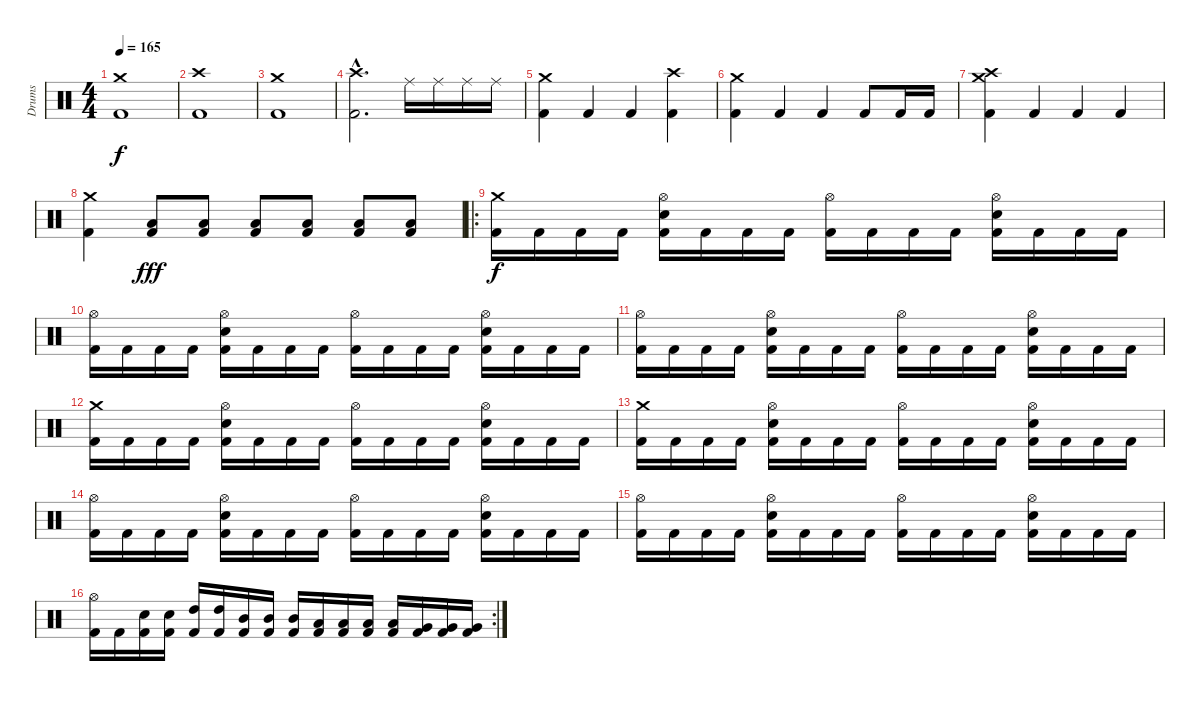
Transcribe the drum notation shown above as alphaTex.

\track ("Drums" "Drums") {instrument percussion}
\staff {score}
\articulation defaults
\ts (4 4)
\tempo 165
\clef neutral
\ks c
("Kick (hit) 2" "Crash medium (hit)").1{dy f} |
("Kick (hit) 2" "Crash high (hit)").1 |
("Kick (hit) 2" "Crash medium (hit)").1 |
("Kick (hit) 2"{hac} "Crash high (hit)"{hac}).2{d} "Ride (middle)".16 "Ride (middle)".16 "Ride (middle)".16 "Ride (middle)".16 |
("Kick (hit) 2" "Crash medium (hit)").4 "Kick (hit) 2".4 "Kick (hit) 2".4 ("Kick (hit) 2" "Crash high (hit)").4 |
("Kick (hit) 2" "Crash medium (hit)").4 "Kick (hit) 2".4 "Kick (hit) 2".4 "Kick (hit) 2".8 "Kick (hit) 2".16 "Kick (hit) 2".16 |
("Kick (hit) 2" "Crash high (hit)" "Crash medium (hit)").4 "Kick (hit) 2".4 "Kick (hit) 2".4 "Kick (hit) 2".4 |
("Kick (hit) 2" "Crash medium (hit)").4 ("Kick (hit) 2" "Low Tom (hit)").8{dy fff} ("Kick (hit) 2" "Low Tom (hit)").8 ("Kick (hit) 2" "Low Tom (hit)").8 ("Kick (hit) 2" "Low Tom (hit)").8 ("Kick (hit) 2" "Low Tom (hit)").8 ("Kick (hit) 2" "Low Tom (hit)").8 |
\ro
("Kick (hit) 2" "Crash medium (hit)").16{dy f} "Kick (hit) 2".16 "Kick (hit) 2".16 "Kick (hit) 2".16 ("Kick (hit) 2" "Electric Snare (hit)" "Hi-Hat (open)").16 "Kick (hit) 2".16 "Kick (hit) 2".16 "Kick (hit) 2".16 ("Kick (hit) 2" "Hi-Hat (open)").16 "Kick (hit) 2".16 "Kick (hit) 2".16 "Kick (hit) 2".16 ("Kick (hit) 2" "Electric Snare (hit)" "Hi-Hat (open)").16 "Kick (hit) 2".16 "Kick (hit) 2".16 "Kick (hit) 2".16 |
("Kick (hit) 2" "Hi-Hat (open)").16 "Kick (hit) 2".16 "Kick (hit) 2".16 "Kick (hit) 2".16 ("Kick (hit) 2" "Electric Snare (hit)" "Hi-Hat (open)").16 "Kick (hit) 2".16 "Kick (hit) 2".16 "Kick (hit) 2".16 ("Kick (hit) 2" "Hi-Hat (open)").16 "Kick (hit) 2".16 "Kick (hit) 2".16 "Kick (hit) 2".16 ("Kick (hit) 2" "Electric Snare (hit)" "Hi-Hat (open)").16 "Kick (hit) 2".16 "Kick (hit) 2".16 "Kick (hit) 2".16 |
("Kick (hit) 2" "Hi-Hat (open)").16 "Kick (hit) 2".16 "Kick (hit) 2".16 "Kick (hit) 2".16 ("Kick (hit) 2" "Electric Snare (hit)" "Hi-Hat (open)").16 "Kick (hit) 2".16 "Kick (hit) 2".16 "Kick (hit) 2".16 ("Kick (hit) 2" "Hi-Hat (open)").16 "Kick (hit) 2".16 "Kick (hit) 2".16 "Kick (hit) 2".16 ("Kick (hit) 2" "Electric Snare (hit)" "Hi-Hat (open)").16 "Kick (hit) 2".16 "Kick (hit) 2".16 "Kick (hit) 2".16 |
("Kick (hit) 2" "Crash medium (hit)").16 "Kick (hit) 2".16 "Kick (hit) 2".16 "Kick (hit) 2".16 ("Kick (hit) 2" "Electric Snare (hit)" "Hi-Hat (open)").16 "Kick (hit) 2".16 "Kick (hit) 2".16 "Kick (hit) 2".16 ("Kick (hit) 2" "Hi-Hat (open)").16 "Kick (hit) 2".16 "Kick (hit) 2".16 "Kick (hit) 2".16 ("Kick (hit) 2" "Electric Snare (hit)" "Hi-Hat (open)").16 "Kick (hit) 2".16 "Kick (hit) 2".16 "Kick (hit) 2".16 |
("Kick (hit) 2" "Crash medium (hit)").16 "Kick (hit) 2".16 "Kick (hit) 2".16 "Kick (hit) 2".16 ("Kick (hit) 2" "Electric Snare (hit)" "Hi-Hat (open)").16 "Kick (hit) 2".16 "Kick (hit) 2".16 "Kick (hit) 2".16 ("Kick (hit) 2" "Hi-Hat (open)").16 "Kick (hit) 2".16 "Kick (hit) 2".16 "Kick (hit) 2".16 ("Kick (hit) 2" "Electric Snare (hit)" "Hi-Hat (open)").16 "Kick (hit) 2".16 "Kick (hit) 2".16 "Kick (hit) 2".16 |
("Kick (hit) 2" "Hi-Hat (open)").16 "Kick (hit) 2".16 "Kick (hit) 2".16 "Kick (hit) 2".16 ("Kick (hit) 2" "Electric Snare (hit)" "Hi-Hat (open)").16 "Kick (hit) 2".16 "Kick (hit) 2".16 "Kick (hit) 2".16 ("Kick (hit) 2" "Hi-Hat (open)").16 "Kick (hit) 2".16 "Kick (hit) 2".16 "Kick (hit) 2".16 ("Kick (hit) 2" "Electric Snare (hit)" "Hi-Hat (open)").16 "Kick (hit) 2".16 "Kick (hit) 2".16 "Kick (hit) 2".16 |
("Kick (hit) 2" "Hi-Hat (open)").16 "Kick (hit) 2".16 "Kick (hit) 2".16 "Kick (hit) 2".16 ("Kick (hit) 2" "Electric Snare (hit)" "Hi-Hat (open)").16 "Kick (hit) 2".16 "Kick (hit) 2".16 "Kick (hit) 2".16 ("Kick (hit) 2" "Hi-Hat (open)").16 "Kick (hit) 2".16 "Kick (hit) 2".16 "Kick (hit) 2".16 ("Kick (hit) 2" "Electric Snare (hit)" "Hi-Hat (open)").16 "Kick (hit) 2".16 "Kick (hit) 2".16 "Kick (hit) 2".16 |
\rc 2
("Kick (hit) 2" "Hi-Hat (open)").16 "Kick (hit) 2".16 ("Kick (hit) 2" "Electric Snare (hit)").16 ("Kick (hit) 2" "Electric Snare (hit)").16 ("Kick (hit) 2" "High Tom (hit)").16 ("Kick (hit) 2" "High Tom (hit)").16 ("Kick (hit) 2" "Mid Tom (hit)").16 ("Kick (hit) 2" "Mid Tom (hit)").16 ("Kick (hit) 2" "Mid Tom (hit)").16 ("Kick (hit) 2" "Low Tom (hit)").16 ("Kick (hit) 2" "Low Tom (hit)").16 ("Kick (hit) 2" "Low Tom (hit)").16 ("Kick (hit) 2" "Low Tom (hit)").16 ("Kick (hit) 2" "Very Low Tom (hit)").16 ("Kick (hit) 2" "Very Low Tom (hit)").16 ("Kick (hit) 2" "Very Low Tom (hit)").16
